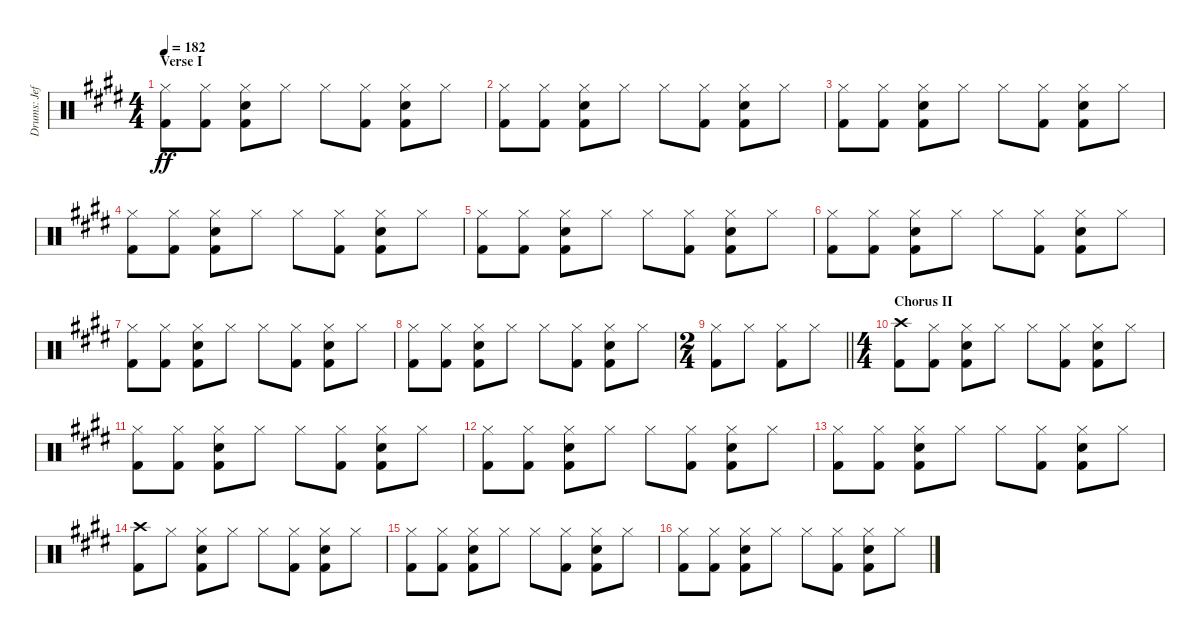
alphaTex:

\track ("Drums: Jeff" "Drums: Jef") {instrument percussion}
\staff {score}
\articulation defaults
\ts (4 4)
\section ("" "Verse I")
\tempo 182
\clef neutral
\ks e
("Hi-Hat (closed)" "Kick (hit) 2").8{dy ff} ("Hi-Hat (closed)" "Kick (hit) 2").8 ("Hi-Hat (closed)" "Electric Snare (hit)" "Kick (hit) 2").8 "Hi-Hat (closed)".8 "Hi-Hat (closed)".8 ("Hi-Hat (closed)" "Kick (hit) 2").8 ("Hi-Hat (closed)" "Electric Snare (hit)" "Kick (hit) 2").8 "Hi-Hat (closed)".8 |
("Hi-Hat (closed)" "Kick (hit) 2").8 ("Hi-Hat (closed)" "Kick (hit) 2").8 ("Hi-Hat (closed)" "Electric Snare (hit)" "Kick (hit) 2").8 "Hi-Hat (closed)".8 "Hi-Hat (closed)".8 ("Hi-Hat (closed)" "Kick (hit) 2").8 ("Hi-Hat (closed)" "Electric Snare (hit)" "Kick (hit) 2").8 "Hi-Hat (closed)".8 |
("Hi-Hat (closed)" "Kick (hit) 2").8 ("Hi-Hat (closed)" "Kick (hit) 2").8 ("Hi-Hat (closed)" "Electric Snare (hit)" "Kick (hit) 2").8 "Hi-Hat (closed)".8 "Hi-Hat (closed)".8 ("Hi-Hat (closed)" "Kick (hit) 2").8 ("Hi-Hat (closed)" "Electric Snare (hit)" "Kick (hit) 2").8 "Hi-Hat (closed)".8 |
("Hi-Hat (closed)" "Kick (hit) 2").8 ("Hi-Hat (closed)" "Kick (hit) 2").8 ("Hi-Hat (closed)" "Electric Snare (hit)" "Kick (hit) 2").8 "Hi-Hat (closed)".8 "Hi-Hat (closed)".8 ("Hi-Hat (closed)" "Kick (hit) 2").8 ("Hi-Hat (closed)" "Electric Snare (hit)" "Kick (hit) 2").8 "Hi-Hat (closed)".8 |
("Hi-Hat (closed)" "Kick (hit) 2").8 ("Hi-Hat (closed)" "Kick (hit) 2").8 ("Hi-Hat (closed)" "Electric Snare (hit)" "Kick (hit) 2").8 "Hi-Hat (closed)".8 "Hi-Hat (closed)".8 ("Hi-Hat (closed)" "Kick (hit) 2").8 ("Hi-Hat (closed)" "Electric Snare (hit)" "Kick (hit) 2").8 "Hi-Hat (closed)".8 |
("Hi-Hat (closed)" "Kick (hit) 2").8 ("Hi-Hat (closed)" "Kick (hit) 2").8 ("Hi-Hat (closed)" "Electric Snare (hit)" "Kick (hit) 2").8 "Hi-Hat (closed)".8 "Hi-Hat (closed)".8 ("Hi-Hat (closed)" "Kick (hit) 2").8 ("Hi-Hat (closed)" "Electric Snare (hit)" "Kick (hit) 2").8 "Hi-Hat (closed)".8 |
("Hi-Hat (closed)" "Kick (hit) 2").8 ("Hi-Hat (closed)" "Kick (hit) 2").8 ("Hi-Hat (closed)" "Electric Snare (hit)" "Kick (hit) 2").8 "Hi-Hat (closed)".8 "Hi-Hat (closed)".8 ("Hi-Hat (closed)" "Kick (hit) 2").8 ("Hi-Hat (closed)" "Electric Snare (hit)" "Kick (hit) 2").8 "Hi-Hat (closed)".8 |
("Hi-Hat (closed)" "Kick (hit) 2").8 ("Hi-Hat (closed)" "Kick (hit) 2").8 ("Hi-Hat (closed)" "Electric Snare (hit)" "Kick (hit) 2").8 "Hi-Hat (closed)".8 "Hi-Hat (closed)".8 ("Hi-Hat (closed)" "Kick (hit) 2").8 ("Hi-Hat (closed)" "Electric Snare (hit)" "Kick (hit) 2").8 "Hi-Hat (closed)".8 |
\ts (2 4)
\barLineRight lightlight
("Hi-Hat (closed)" "Kick (hit) 2").8 "Hi-Hat (closed)".8 ("Hi-Hat (closed)" "Kick (hit) 2").8 "Hi-Hat (closed)".8 |
\ts (4 4)
\section ("" "Chorus II")
("Crash high (hit)" "Kick (hit) 2").8 ("Hi-Hat (closed)" "Kick (hit) 2").8 ("Hi-Hat (closed)" "Electric Snare (hit)" "Kick (hit) 2").8 "Hi-Hat (closed)".8 "Hi-Hat (closed)".8 ("Hi-Hat (closed)" "Kick (hit) 2").8 ("Hi-Hat (closed)" "Electric Snare (hit)" "Kick (hit) 2").8 "Hi-Hat (closed)".8 |
("Hi-Hat (closed)" "Kick (hit) 2").8 ("Hi-Hat (closed)" "Kick (hit) 2").8 ("Hi-Hat (closed)" "Electric Snare (hit)" "Kick (hit) 2").8 "Hi-Hat (closed)".8 "Hi-Hat (closed)".8 ("Hi-Hat (closed)" "Kick (hit) 2").8 ("Hi-Hat (closed)" "Electric Snare (hit)" "Kick (hit) 2").8 "Hi-Hat (closed)".8 |
("Hi-Hat (closed)" "Kick (hit) 2").8 ("Hi-Hat (closed)" "Kick (hit) 2").8 ("Hi-Hat (closed)" "Electric Snare (hit)" "Kick (hit) 2").8 "Hi-Hat (closed)".8 "Hi-Hat (closed)".8 ("Hi-Hat (closed)" "Kick (hit) 2").8 ("Hi-Hat (closed)" "Electric Snare (hit)" "Kick (hit) 2").8 "Hi-Hat (closed)".8 |
("Hi-Hat (closed)" "Kick (hit) 2").8 ("Hi-Hat (closed)" "Kick (hit) 2").8 ("Hi-Hat (closed)" "Electric Snare (hit)" "Kick (hit) 2").8 "Hi-Hat (closed)".8 "Hi-Hat (closed)".8 ("Hi-Hat (closed)" "Kick (hit) 2").8 ("Hi-Hat (closed)" "Electric Snare (hit)" "Kick (hit) 2").8 "Hi-Hat (closed)".8 |
("Crash high (hit)" "Kick (hit) 2").8 "Hi-Hat (closed)".8 ("Hi-Hat (closed)" "Electric Snare (hit)" "Kick (hit) 2").8 "Hi-Hat (closed)".8 "Hi-Hat (closed)".8 ("Hi-Hat (closed)" "Kick (hit) 2").8 ("Hi-Hat (closed)" "Electric Snare (hit)" "Kick (hit) 2").8 "Hi-Hat (closed)".8 |
("Hi-Hat (closed)" "Kick (hit) 2").8 ("Hi-Hat (closed)" "Kick (hit) 2").8 ("Hi-Hat (closed)" "Electric Snare (hit)" "Kick (hit) 2").8 "Hi-Hat (closed)".8 "Hi-Hat (closed)".8 ("Hi-Hat (closed)" "Kick (hit) 2").8 ("Hi-Hat (closed)" "Electric Snare (hit)" "Kick (hit) 2").8 "Hi-Hat (closed)".8 |
("Hi-Hat (closed)" "Kick (hit) 2").8 ("Hi-Hat (closed)" "Kick (hit) 2").8 ("Hi-Hat (closed)" "Electric Snare (hit)" "Kick (hit) 2").8 "Hi-Hat (closed)".8 "Hi-Hat (closed)".8 ("Hi-Hat (closed)" "Kick (hit) 2").8 ("Hi-Hat (closed)" "Electric Snare (hit)" "Kick (hit) 2").8 "Hi-Hat (closed)".8
